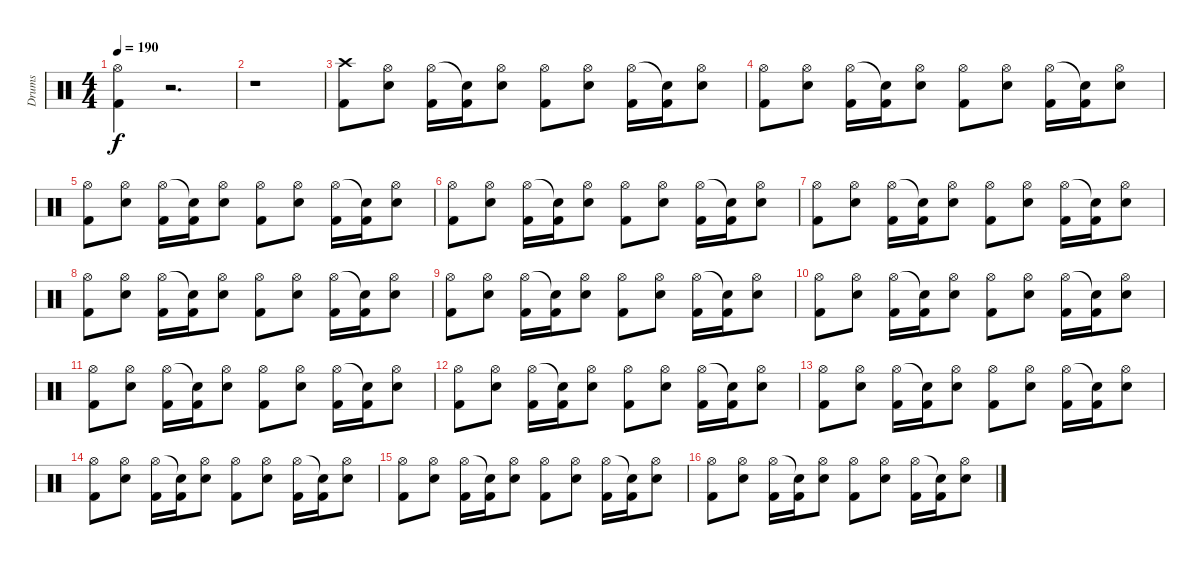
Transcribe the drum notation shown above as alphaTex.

\track ("Drums" "Drums") {instrument percussion}
\staff {score}
\articulation defaults
\ts (4 4)
\tempo 190
\clef neutral
\ks c
("Hi-Hat (open)" "Kick (hit) 2").4{dy f} r.2{d} |
r.1 |
("Crash high (hit)" "Kick (hit) 2").8 ("Hi-Hat (open)" "Snare (hit) 2").8 ("Hi-Hat (open)" "Kick (hit) 2").16 ("Snare (hit)"{t} "Kick (hit) 2").16 ("Hi-Hat (open)" "Snare (hit) 2").8 ("Hi-Hat (open)" "Kick (hit) 2").8 ("Hi-Hat (open)" "Snare (hit) 2").8 ("Hi-Hat (open)" "Kick (hit) 2").16 ("Snare (hit)"{t} "Kick (hit) 2").16 ("Hi-Hat (open)" "Snare (hit) 2").8 |
("Hi-Hat (open)" "Kick (hit) 2").8 ("Hi-Hat (open)" "Snare (hit) 2").8 ("Hi-Hat (open)" "Kick (hit) 2").16 ("Snare (hit)"{t} "Kick (hit) 2").16 ("Hi-Hat (open)" "Snare (hit) 2").8 ("Hi-Hat (open)" "Kick (hit) 2").8 ("Hi-Hat (open)" "Snare (hit) 2").8 ("Hi-Hat (open)" "Kick (hit) 2").16 ("Snare (hit)"{t} "Kick (hit) 2").16 ("Hi-Hat (open)" "Snare (hit) 2").8 |
("Hi-Hat (open)" "Kick (hit) 2").8 ("Hi-Hat (open)" "Snare (hit) 2").8 ("Hi-Hat (open)" "Kick (hit) 2").16 ("Snare (hit)"{t} "Kick (hit) 2").16 ("Hi-Hat (open)" "Snare (hit) 2").8 ("Hi-Hat (open)" "Kick (hit) 2").8 ("Hi-Hat (open)" "Snare (hit) 2").8 ("Hi-Hat (open)" "Kick (hit) 2").16 ("Snare (hit)"{t} "Kick (hit) 2").16 ("Hi-Hat (open)" "Snare (hit) 2").8 |
("Hi-Hat (open)" "Kick (hit) 2").8 ("Hi-Hat (open)" "Snare (hit) 2").8 ("Hi-Hat (open)" "Kick (hit) 2").16 ("Snare (hit)"{t} "Kick (hit) 2").16 ("Hi-Hat (open)" "Snare (hit) 2").8 ("Hi-Hat (open)" "Kick (hit) 2").8 ("Hi-Hat (open)" "Snare (hit) 2").8 ("Hi-Hat (open)" "Kick (hit) 2").16 ("Snare (hit)"{t} "Kick (hit) 2").16 ("Hi-Hat (open)" "Snare (hit) 2").8 |
("Hi-Hat (open)" "Kick (hit) 2").8 ("Hi-Hat (open)" "Snare (hit) 2").8 ("Hi-Hat (open)" "Kick (hit) 2").16 ("Snare (hit)"{t} "Kick (hit) 2").16 ("Hi-Hat (open)" "Snare (hit) 2").8 ("Hi-Hat (open)" "Kick (hit) 2").8 ("Hi-Hat (open)" "Snare (hit) 2").8 ("Hi-Hat (open)" "Kick (hit) 2").16 ("Snare (hit)"{t} "Kick (hit) 2").16 ("Hi-Hat (open)" "Snare (hit) 2").8 |
("Hi-Hat (open)" "Kick (hit) 2").8 ("Hi-Hat (open)" "Snare (hit) 2").8 ("Hi-Hat (open)" "Kick (hit) 2").16 ("Snare (hit)"{t} "Kick (hit) 2").16 ("Hi-Hat (open)" "Snare (hit) 2").8 ("Hi-Hat (open)" "Kick (hit) 2").8 ("Hi-Hat (open)" "Snare (hit) 2").8 ("Hi-Hat (open)" "Kick (hit) 2").16 ("Snare (hit)"{t} "Kick (hit) 2").16 ("Hi-Hat (open)" "Snare (hit) 2").8 |
("Hi-Hat (open)" "Kick (hit) 2").8 ("Hi-Hat (open)" "Snare (hit) 2").8 ("Hi-Hat (open)" "Kick (hit) 2").16 ("Snare (hit)"{t} "Kick (hit) 2").16 ("Hi-Hat (open)" "Snare (hit) 2").8 ("Hi-Hat (open)" "Kick (hit) 2").8 ("Hi-Hat (open)" "Snare (hit) 2").8 ("Hi-Hat (open)" "Kick (hit) 2").16 ("Snare (hit)"{t} "Kick (hit) 2").16 ("Hi-Hat (open)" "Snare (hit) 2").8 |
("Hi-Hat (open)" "Kick (hit) 2").8 ("Hi-Hat (open)" "Snare (hit) 2").8 ("Hi-Hat (open)" "Kick (hit) 2").16 ("Snare (hit)"{t} "Kick (hit) 2").16 ("Hi-Hat (open)" "Snare (hit) 2").8 ("Hi-Hat (open)" "Kick (hit) 2").8 ("Hi-Hat (open)" "Snare (hit) 2").8 ("Hi-Hat (open)" "Kick (hit) 2").16 ("Snare (hit)"{t} "Kick (hit) 2").16 ("Hi-Hat (open)" "Snare (hit) 2").8 |
("Hi-Hat (open)" "Kick (hit) 2").8 ("Hi-Hat (open)" "Snare (hit) 2").8 ("Hi-Hat (open)" "Kick (hit) 2").16 ("Snare (hit)"{t} "Kick (hit) 2").16 ("Hi-Hat (open)" "Snare (hit) 2").8 ("Hi-Hat (open)" "Kick (hit) 2").8 ("Hi-Hat (open)" "Snare (hit) 2").8 ("Hi-Hat (open)" "Kick (hit) 2").16 ("Snare (hit)"{t} "Kick (hit) 2").16 ("Hi-Hat (open)" "Snare (hit) 2").8 |
("Hi-Hat (open)" "Kick (hit) 2").8 ("Hi-Hat (open)" "Snare (hit) 2").8 ("Hi-Hat (open)" "Kick (hit) 2").16 ("Snare (hit)"{t} "Kick (hit) 2").16 ("Hi-Hat (open)" "Snare (hit) 2").8 ("Hi-Hat (open)" "Kick (hit) 2").8 ("Hi-Hat (open)" "Snare (hit) 2").8 ("Hi-Hat (open)" "Kick (hit) 2").16 ("Snare (hit)"{t} "Kick (hit) 2").16 ("Hi-Hat (open)" "Snare (hit) 2").8 |
("Hi-Hat (open)" "Kick (hit) 2").8 ("Hi-Hat (open)" "Snare (hit) 2").8 ("Hi-Hat (open)" "Kick (hit) 2").16 ("Snare (hit)"{t} "Kick (hit) 2").16 ("Hi-Hat (open)" "Snare (hit) 2").8 ("Hi-Hat (open)" "Kick (hit) 2").8 ("Hi-Hat (open)" "Snare (hit) 2").8 ("Hi-Hat (open)" "Kick (hit) 2").16 ("Snare (hit)"{t} "Kick (hit) 2").16 ("Hi-Hat (open)" "Snare (hit) 2").8 |
("Hi-Hat (open)" "Kick (hit) 2").8 ("Hi-Hat (open)" "Snare (hit) 2").8 ("Hi-Hat (open)" "Kick (hit) 2").16 ("Snare (hit)"{t} "Kick (hit) 2").16 ("Hi-Hat (open)" "Snare (hit) 2").8 ("Hi-Hat (open)" "Kick (hit) 2").8 ("Hi-Hat (open)" "Snare (hit) 2").8 ("Hi-Hat (open)" "Kick (hit) 2").16 ("Snare (hit)"{t} "Kick (hit) 2").16 ("Hi-Hat (open)" "Snare (hit) 2").8 |
("Hi-Hat (open)" "Kick (hit) 2").8 ("Hi-Hat (open)" "Snare (hit) 2").8 ("Hi-Hat (open)" "Kick (hit) 2").16 ("Snare (hit)"{t} "Kick (hit) 2").16 ("Hi-Hat (open)" "Snare (hit) 2").8 ("Hi-Hat (open)" "Kick (hit) 2").8 ("Hi-Hat (open)" "Snare (hit) 2").8 ("Hi-Hat (open)" "Kick (hit) 2").16 ("Snare (hit)"{t} "Kick (hit) 2").16 ("Hi-Hat (open)" "Snare (hit) 2").8 |
("Hi-Hat (open)" "Kick (hit) 2").8 ("Hi-Hat (open)" "Snare (hit) 2").8 ("Hi-Hat (open)" "Kick (hit) 2").16 ("Snare (hit)"{t} "Kick (hit) 2").16 ("Hi-Hat (open)" "Snare (hit) 2").8 ("Hi-Hat (open)" "Kick (hit) 2").8 ("Hi-Hat (open)" "Snare (hit) 2").8 ("Hi-Hat (open)" "Kick (hit) 2").16 ("Snare (hit)"{t} "Kick (hit) 2").16 ("Hi-Hat (open)" "Snare (hit) 2").8
